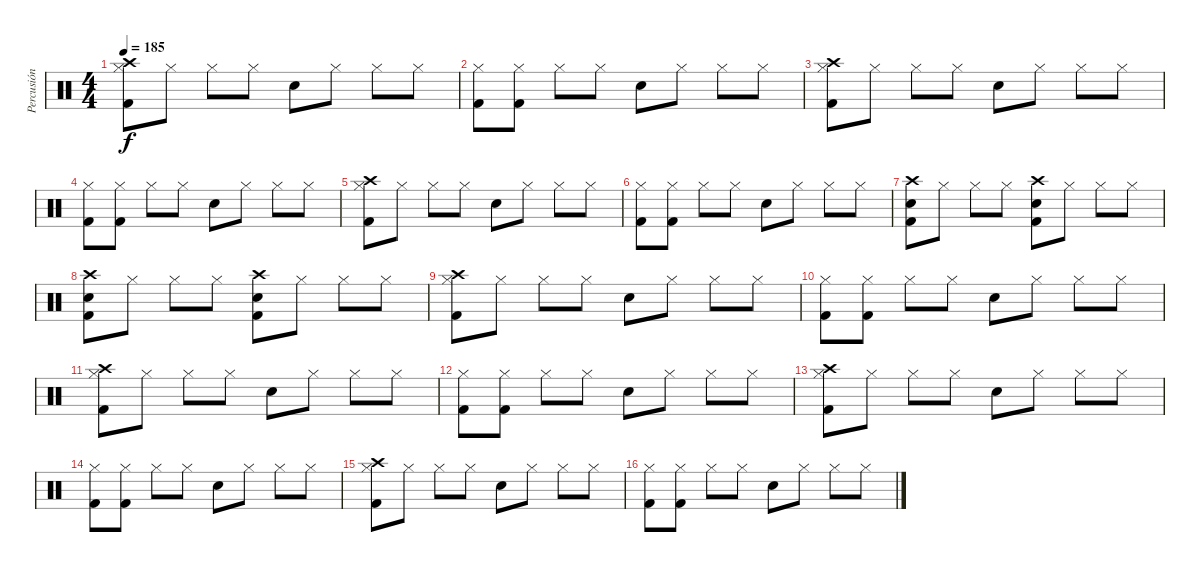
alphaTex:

\track ("Percusión" "Percusión") {instrument percussion}
\staff {score}
\articulation defaults
\ts (4 4)
\tempo 185
\clef neutral
\ks c
("Crash high (hit)" "Hi-Hat (closed)" "Kick (hit) 2").8{dy f} "Hi-Hat (closed)".8 "Hi-Hat (closed)".8 "Hi-Hat (closed)".8 "Electric Snare (hit)".8 "Hi-Hat (closed)".8 "Hi-Hat (closed)".8 "Hi-Hat (closed)".8 |
("Hi-Hat (closed)" "Kick (hit) 2").8 ("Hi-Hat (closed)" "Kick (hit) 2").8 "Hi-Hat (closed)".8 "Hi-Hat (closed)".8 "Electric Snare (hit)".8 "Hi-Hat (closed)".8 "Hi-Hat (closed)".8 "Hi-Hat (closed)".8 |
("Crash high (hit)" "Hi-Hat (closed)" "Kick (hit) 2").8 "Hi-Hat (closed)".8 "Hi-Hat (closed)".8 "Hi-Hat (closed)".8 "Electric Snare (hit)".8 "Hi-Hat (closed)".8 "Hi-Hat (closed)".8 "Hi-Hat (closed)".8 |
("Hi-Hat (closed)" "Kick (hit) 2").8 ("Hi-Hat (closed)" "Kick (hit) 2").8 "Hi-Hat (closed)".8 "Hi-Hat (closed)".8 "Electric Snare (hit)".8 "Hi-Hat (closed)".8 "Hi-Hat (closed)".8 "Hi-Hat (closed)".8 |
("Crash high (hit)" "Hi-Hat (closed)" "Kick (hit) 2").8 "Hi-Hat (closed)".8 "Hi-Hat (closed)".8 "Hi-Hat (closed)".8 "Electric Snare (hit)".8 "Hi-Hat (closed)".8 "Hi-Hat (closed)".8 "Hi-Hat (closed)".8 |
("Hi-Hat (closed)" "Kick (hit) 2").8 ("Hi-Hat (closed)" "Kick (hit) 2").8 "Hi-Hat (closed)".8 "Hi-Hat (closed)".8 "Electric Snare (hit)".8 "Hi-Hat (closed)".8 "Hi-Hat (closed)".8 "Hi-Hat (closed)".8 |
("Crash high (hit)" "Electric Snare (hit)" "Kick (hit) 2").8 "Hi-Hat (closed)".8 "Hi-Hat (closed)".8 "Hi-Hat (closed)".8 ("Crash high (hit)" "Electric Snare (hit)" "Kick (hit) 2").8 "Hi-Hat (closed)".8 "Hi-Hat (closed)".8 "Hi-Hat (closed)".8 |
("Crash high (hit)" "Electric Snare (hit)" "Kick (hit) 2").8 "Hi-Hat (closed)".8 "Hi-Hat (closed)".8 "Hi-Hat (closed)".8 ("Crash high (hit)" "Electric Snare (hit)" "Kick (hit) 2").8 "Hi-Hat (closed)".8 "Hi-Hat (closed)".8 "Hi-Hat (closed)".8 |
("Crash high (hit)" "Hi-Hat (closed)" "Kick (hit) 2").8 "Hi-Hat (closed)".8 "Hi-Hat (closed)".8 "Hi-Hat (closed)".8 "Electric Snare (hit)".8 "Hi-Hat (closed)".8 "Hi-Hat (closed)".8 "Hi-Hat (closed)".8 |
("Hi-Hat (closed)" "Kick (hit) 2").8 ("Hi-Hat (closed)" "Kick (hit) 2").8 "Hi-Hat (closed)".8 "Hi-Hat (closed)".8 "Electric Snare (hit)".8 "Hi-Hat (closed)".8 "Hi-Hat (closed)".8 "Hi-Hat (closed)".8 |
("Crash high (hit)" "Hi-Hat (closed)" "Kick (hit) 2").8 "Hi-Hat (closed)".8 "Hi-Hat (closed)".8 "Hi-Hat (closed)".8 "Electric Snare (hit)".8 "Hi-Hat (closed)".8 "Hi-Hat (closed)".8 "Hi-Hat (closed)".8 |
("Hi-Hat (closed)" "Kick (hit) 2").8 ("Hi-Hat (closed)" "Kick (hit) 2").8 "Hi-Hat (closed)".8 "Hi-Hat (closed)".8 "Electric Snare (hit)".8 "Hi-Hat (closed)".8 "Hi-Hat (closed)".8 "Hi-Hat (closed)".8 |
("Crash high (hit)" "Hi-Hat (closed)" "Kick (hit) 2").8 "Hi-Hat (closed)".8 "Hi-Hat (closed)".8 "Hi-Hat (closed)".8 "Electric Snare (hit)".8 "Hi-Hat (closed)".8 "Hi-Hat (closed)".8 "Hi-Hat (closed)".8 |
("Hi-Hat (closed)" "Kick (hit) 2").8 ("Hi-Hat (closed)" "Kick (hit) 2").8 "Hi-Hat (closed)".8 "Hi-Hat (closed)".8 "Electric Snare (hit)".8 "Hi-Hat (closed)".8 "Hi-Hat (closed)".8 "Hi-Hat (closed)".8 |
("Crash high (hit)" "Hi-Hat (closed)" "Kick (hit) 2").8 "Hi-Hat (closed)".8 "Hi-Hat (closed)".8 "Hi-Hat (closed)".8 "Electric Snare (hit)".8 "Hi-Hat (closed)".8 "Hi-Hat (closed)".8 "Hi-Hat (closed)".8 |
("Hi-Hat (closed)" "Kick (hit) 2").8 ("Hi-Hat (closed)" "Kick (hit) 2").8 "Hi-Hat (closed)".8 "Hi-Hat (closed)".8 "Electric Snare (hit)".8 "Hi-Hat (closed)".8 "Hi-Hat (closed)".8 "Hi-Hat (closed)".8
